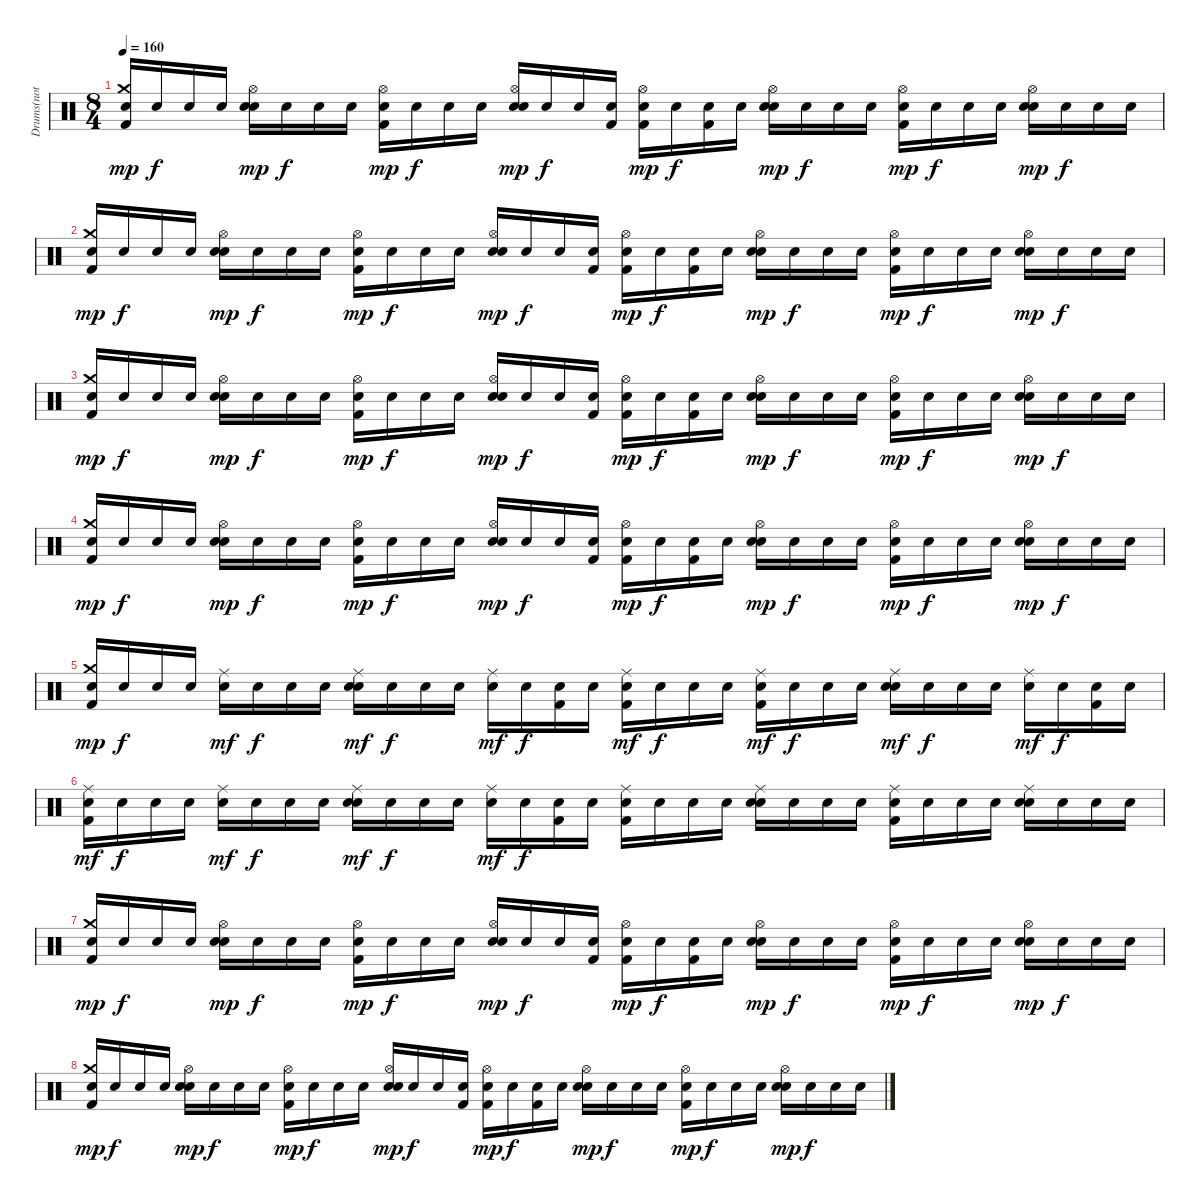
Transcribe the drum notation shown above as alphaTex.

\track ("Drums(not correct)" "Drums(not ") {instrument percussion}
\staff {score}
\articulation defaults
\ts (8 4)
\tempo 160
\clef neutral
\ks c
("Snare (hit)"{x} "Crash medium (hit)" "Kick (hit) 2").16{dy mp} "Snare (hit)"{x}.16{dy f} "Snare (hit)"{x}.16 "Snare (hit)"{x}.16 ("Snare (hit)"{x} "Hi-Hat (open)" "Electric Snare (hit)").16{dy mp} "Snare (hit)"{x}.16{dy f} "Snare (hit)"{x}.16 "Snare (hit)"{x}.16 ("Snare (hit)"{x} "Hi-Hat (open)" "Kick (hit) 2").16{dy mp} "Snare (hit)"{x}.16{dy f} "Snare (hit)"{x}.16 "Snare (hit)"{x}.16 ("Snare (hit)"{x} "Hi-Hat (open)" "Electric Snare (hit)").16{dy mp} "Snare (hit)"{x}.16{dy f} "Snare (hit)"{x}.16 ("Snare (hit)"{x} "Kick (hit) 2").16 ("Snare (hit)"{x} "Hi-Hat (open)" "Kick (hit) 2").16{dy mp} "Snare (hit)"{x}.16{dy f} ("Snare (hit)"{x} "Kick (hit) 2").16 "Snare (hit)"{x}.16 ("Snare (hit)"{x} "Hi-Hat (open)" "Electric Snare (hit)").16{dy mp} "Snare (hit)"{x}.16{dy f} "Snare (hit)"{x}.16 "Snare (hit)"{x}.16 ("Snare (hit)"{x} "Hi-Hat (open)" "Kick (hit) 2").16{dy mp} "Snare (hit)"{x}.16{dy f} "Snare (hit)"{x}.16 "Snare (hit)"{x}.16 ("Snare (hit)"{x} "Hi-Hat (open)" "Electric Snare (hit)").16{dy mp} "Snare (hit)"{x}.16{dy f} "Snare (hit)"{x}.16 "Snare (hit)"{x}.16 |
("Snare (hit)"{x} "Crash medium (hit)" "Kick (hit) 2").16{dy mp} "Snare (hit)"{x}.16{dy f} "Snare (hit)"{x}.16 "Snare (hit)"{x}.16 ("Snare (hit)"{x} "Hi-Hat (open)" "Electric Snare (hit)").16{dy mp} "Snare (hit)"{x}.16{dy f} "Snare (hit)"{x}.16 "Snare (hit)"{x}.16 ("Snare (hit)"{x} "Hi-Hat (open)" "Kick (hit) 2").16{dy mp} "Snare (hit)"{x}.16{dy f} "Snare (hit)"{x}.16 "Snare (hit)"{x}.16 ("Snare (hit)"{x} "Hi-Hat (open)" "Electric Snare (hit)").16{dy mp} "Snare (hit)"{x}.16{dy f} "Snare (hit)"{x}.16 ("Snare (hit)"{x} "Kick (hit) 2").16 ("Snare (hit)"{x} "Hi-Hat (open)" "Kick (hit) 2").16{dy mp} "Snare (hit)"{x}.16{dy f} ("Snare (hit)"{x} "Kick (hit) 2").16 "Snare (hit)"{x}.16 ("Snare (hit)"{x} "Hi-Hat (open)" "Electric Snare (hit)").16{dy mp} "Snare (hit)"{x}.16{dy f} "Snare (hit)"{x}.16 "Snare (hit)"{x}.16 ("Snare (hit)"{x} "Hi-Hat (open)" "Kick (hit) 2").16{dy mp} "Snare (hit)"{x}.16{dy f} "Snare (hit)"{x}.16 "Snare (hit)"{x}.16 ("Snare (hit)"{x} "Hi-Hat (open)" "Electric Snare (hit)").16{dy mp} "Snare (hit)"{x}.16{dy f} "Snare (hit)"{x}.16 "Snare (hit)"{x}.16 |
("Snare (hit)"{x} "Crash medium (hit)" "Kick (hit) 2").16{dy mp} "Snare (hit)"{x}.16{dy f} "Snare (hit)"{x}.16 "Snare (hit)"{x}.16 ("Snare (hit)"{x} "Hi-Hat (open)" "Electric Snare (hit)").16{dy mp} "Snare (hit)"{x}.16{dy f} "Snare (hit)"{x}.16 "Snare (hit)"{x}.16 ("Snare (hit)"{x} "Hi-Hat (open)" "Kick (hit) 2").16{dy mp} "Snare (hit)"{x}.16{dy f} "Snare (hit)"{x}.16 "Snare (hit)"{x}.16 ("Snare (hit)"{x} "Hi-Hat (open)" "Electric Snare (hit)").16{dy mp} "Snare (hit)"{x}.16{dy f} "Snare (hit)"{x}.16 ("Snare (hit)"{x} "Kick (hit) 2").16 ("Snare (hit)"{x} "Hi-Hat (open)" "Kick (hit) 2").16{dy mp} "Snare (hit)"{x}.16{dy f} ("Snare (hit)"{x} "Kick (hit) 2").16 "Snare (hit)"{x}.16 ("Snare (hit)"{x} "Hi-Hat (open)" "Electric Snare (hit)").16{dy mp} "Snare (hit)"{x}.16{dy f} "Snare (hit)"{x}.16 "Snare (hit)"{x}.16 ("Snare (hit)"{x} "Hi-Hat (open)" "Kick (hit) 2").16{dy mp} "Snare (hit)"{x}.16{dy f} "Snare (hit)"{x}.16 "Snare (hit)"{x}.16 ("Snare (hit)"{x} "Hi-Hat (open)" "Electric Snare (hit)").16{dy mp} "Snare (hit)"{x}.16{dy f} "Snare (hit)"{x}.16 "Snare (hit)"{x}.16 |
("Snare (hit)"{x} "Crash medium (hit)" "Kick (hit) 2").16{dy mp} "Snare (hit)"{x}.16{dy f} "Snare (hit)"{x}.16 "Snare (hit)"{x}.16 ("Snare (hit)"{x} "Hi-Hat (open)" "Electric Snare (hit)").16{dy mp} "Snare (hit)"{x}.16{dy f} "Snare (hit)"{x}.16 "Snare (hit)"{x}.16 ("Snare (hit)"{x} "Hi-Hat (open)" "Kick (hit) 2").16{dy mp} "Snare (hit)"{x}.16{dy f} "Snare (hit)"{x}.16 "Snare (hit)"{x}.16 ("Snare (hit)"{x} "Hi-Hat (open)" "Electric Snare (hit)").16{dy mp} "Snare (hit)"{x}.16{dy f} "Snare (hit)"{x}.16 ("Snare (hit)"{x} "Kick (hit) 2").16 ("Snare (hit)"{x} "Hi-Hat (open)" "Kick (hit) 2").16{dy mp} "Snare (hit)"{x}.16{dy f} ("Snare (hit)"{x} "Kick (hit) 2").16 "Snare (hit)"{x}.16 ("Snare (hit)"{x} "Hi-Hat (open)" "Electric Snare (hit)").16{dy mp} "Snare (hit)"{x}.16{dy f} "Snare (hit)"{x}.16 "Snare (hit)"{x}.16 ("Snare (hit)"{x} "Hi-Hat (open)" "Kick (hit) 2").16{dy mp} "Snare (hit)"{x}.16{dy f} "Snare (hit)"{x}.16 "Snare (hit)"{x}.16 ("Snare (hit)"{x} "Hi-Hat (open)" "Electric Snare (hit)").16{dy mp} "Snare (hit)"{x}.16{dy f} "Snare (hit)"{x}.16 "Snare (hit)"{x}.16 |
("Snare (hit)"{x} "Crash medium (hit)" "Kick (hit) 2").16{dy mp} "Snare (hit)"{x}.16{dy f} "Snare (hit)"{x}.16 "Snare (hit)"{x}.16 ("Snare (hit)"{x} "Ride (middle)").16{dy mf} "Snare (hit)"{x}.16{dy f} "Snare (hit)"{x}.16 "Snare (hit)"{x}.16 ("Snare (hit)"{x} "Ride (middle)" "Electric Snare (hit)").16{dy mf} "Snare (hit)"{x}.16{dy f} "Snare (hit)"{x}.16 "Snare (hit)"{x}.16 ("Snare (hit)"{x} "Ride (middle)").16{dy mf} "Snare (hit)"{x}.16{dy f} ("Snare (hit)"{x} "Kick (hit) 2").16 "Snare (hit)"{x}.16 ("Snare (hit)"{x} "Ride (middle)" "Kick (hit) 2").16{dy mf} "Snare (hit)"{x}.16{dy f} "Snare (hit)"{x}.16 "Snare (hit)"{x}.16 ("Snare (hit)"{x} "Ride (middle)" "Kick (hit) 2").16{dy mf} "Snare (hit)"{x}.16{dy f} "Snare (hit)"{x}.16 "Snare (hit)"{x}.16 ("Snare (hit)"{x} "Ride (middle)" "Electric Snare (hit)").16{dy mf} "Snare (hit)"{x}.16{dy f} "Snare (hit)"{x}.16 "Snare (hit)"{x}.16 ("Snare (hit)"{x} "Ride (middle)").16{dy mf} "Snare (hit)"{x}.16{dy f} ("Snare (hit)"{x} "Kick (hit) 2").16 "Snare (hit)"{x}.16 |
("Snare (hit)"{x} "Ride (middle)" "Kick (hit) 2").16{dy mf} "Snare (hit)"{x}.16{dy f} "Snare (hit)"{x}.16 "Snare (hit)"{x}.16 ("Snare (hit)"{x} "Ride (middle)").16{dy mf} "Snare (hit)"{x}.16{dy f} "Snare (hit)"{x}.16 "Snare (hit)"{x}.16 ("Snare (hit)"{x} "Ride (middle)" "Electric Snare (hit)").16{dy mf} "Snare (hit)"{x}.16{dy f} "Snare (hit)"{x}.16 "Snare (hit)"{x}.16 ("Snare (hit)"{x} "Ride (middle)").16{dy mf} "Snare (hit)"{x}.16{dy f} ("Snare (hit)"{x} "Kick (hit) 2").16 "Snare (hit)"{x}.16 ("Snare (hit)"{x} "Ride (middle)" "Kick (hit) 2").16 "Snare (hit)"{x}.16 "Snare (hit)"{x}.16 "Snare (hit)"{x}.16 ("Snare (hit)"{x} "Ride (middle)" "Electric Snare (hit)").16 "Snare (hit)"{x}.16 "Snare (hit)"{x}.16 "Snare (hit)"{x}.16 ("Snare (hit)"{x} "Ride (middle)" "Kick (hit) 2").16 "Snare (hit)"{x}.16 "Snare (hit)"{x}.16 "Snare (hit)"{x}.16 ("Snare (hit)"{x} "Ride (middle)" "Electric Snare (hit)").16 "Snare (hit)"{x}.16 "Snare (hit)"{x}.16 "Snare (hit)"{x}.16 |
("Snare (hit)"{x} "Crash medium (hit)" "Kick (hit) 2").16{dy mp} "Snare (hit)"{x}.16{dy f} "Snare (hit)"{x}.16 "Snare (hit)"{x}.16 ("Snare (hit)"{x} "Hi-Hat (open)" "Electric Snare (hit)").16{dy mp} "Snare (hit)"{x}.16{dy f} "Snare (hit)"{x}.16 "Snare (hit)"{x}.16 ("Snare (hit)"{x} "Hi-Hat (open)" "Kick (hit) 2").16{dy mp} "Snare (hit)"{x}.16{dy f} "Snare (hit)"{x}.16 "Snare (hit)"{x}.16 ("Snare (hit)"{x} "Hi-Hat (open)" "Electric Snare (hit)").16{dy mp} "Snare (hit)"{x}.16{dy f} "Snare (hit)"{x}.16 ("Snare (hit)"{x} "Kick (hit) 2").16 ("Snare (hit)"{x} "Hi-Hat (open)" "Kick (hit) 2").16{dy mp} "Snare (hit)"{x}.16{dy f} ("Snare (hit)"{x} "Kick (hit) 2").16 "Snare (hit)"{x}.16 ("Snare (hit)"{x} "Hi-Hat (open)" "Electric Snare (hit)").16{dy mp} "Snare (hit)"{x}.16{dy f} "Snare (hit)"{x}.16 "Snare (hit)"{x}.16 ("Snare (hit)"{x} "Hi-Hat (open)" "Kick (hit) 2").16{dy mp} "Snare (hit)"{x}.16{dy f} "Snare (hit)"{x}.16 "Snare (hit)"{x}.16 ("Snare (hit)"{x} "Hi-Hat (open)" "Electric Snare (hit)").16{dy mp} "Snare (hit)"{x}.16{dy f} "Snare (hit)"{x}.16 "Snare (hit)"{x}.16 |
("Snare (hit)"{x} "Crash medium (hit)" "Kick (hit) 2").16{dy mp} "Snare (hit)"{x}.16{dy f} "Snare (hit)"{x}.16 "Snare (hit)"{x}.16 ("Snare (hit)"{x} "Hi-Hat (open)" "Electric Snare (hit)").16{dy mp} "Snare (hit)"{x}.16{dy f} "Snare (hit)"{x}.16 "Snare (hit)"{x}.16 ("Snare (hit)"{x} "Hi-Hat (open)" "Kick (hit) 2").16{dy mp} "Snare (hit)"{x}.16{dy f} "Snare (hit)"{x}.16 "Snare (hit)"{x}.16 ("Snare (hit)"{x} "Hi-Hat (open)" "Electric Snare (hit)").16{dy mp} "Snare (hit)"{x}.16{dy f} "Snare (hit)"{x}.16 ("Snare (hit)"{x} "Kick (hit) 2").16 ("Snare (hit)"{x} "Hi-Hat (open)" "Kick (hit) 2").16{dy mp} "Snare (hit)"{x}.16{dy f} ("Snare (hit)"{x} "Kick (hit) 2").16 "Snare (hit)"{x}.16 ("Snare (hit)"{x} "Hi-Hat (open)" "Electric Snare (hit)").16{dy mp} "Snare (hit)"{x}.16{dy f} "Snare (hit)"{x}.16 "Snare (hit)"{x}.16 ("Snare (hit)"{x} "Hi-Hat (open)" "Kick (hit) 2").16{dy mp} "Snare (hit)"{x}.16{dy f} "Snare (hit)"{x}.16 "Snare (hit)"{x}.16 ("Snare (hit)"{x} "Hi-Hat (open)" "Electric Snare (hit)").16{dy mp} "Snare (hit)"{x}.16{dy f} "Snare (hit)"{x}.16 "Snare (hit)"{x}.16
